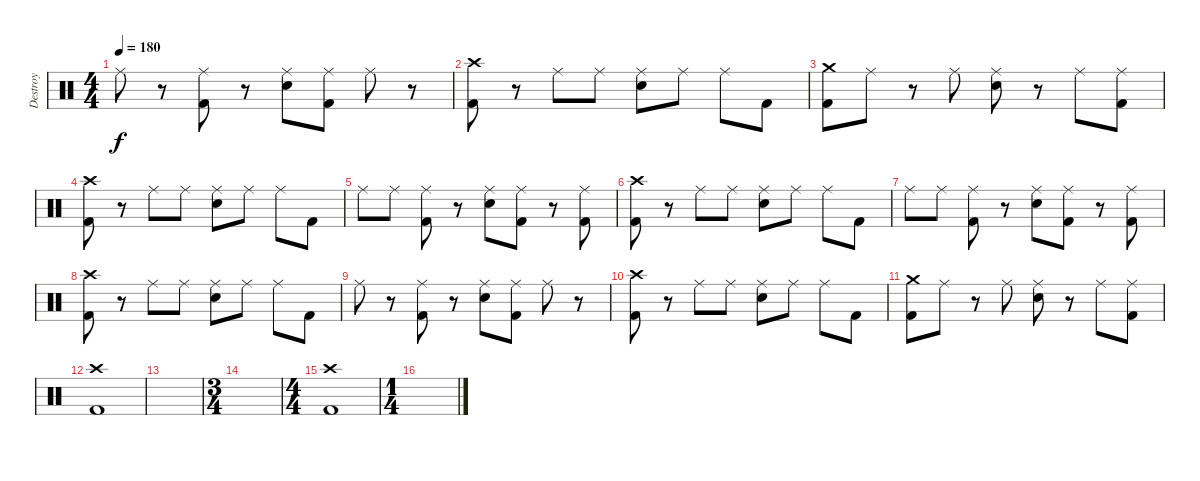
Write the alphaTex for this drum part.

\track ("Destroy" "Destroy") {instrument percussion}
\staff {score}
\articulation defaults
\ts (4 4)
\tempo 180
\clef neutral
\ks c "Ride (middle)".8{dy f}
r.8 ("Ride (middle)" "Kick (hit) 2").8 r.8 ("Ride (middle)" "Electric Snare (hit)").8 ("Ride (middle)" "Kick (hit) 2").8 "Ride (middle)".8 r.8 |
("Crash high (hit)" "Kick (hit) 2").8 r.8 "Ride (middle)".8 "Ride (middle)".8 ("Ride (middle)" "Electric Snare (hit)").8 "Ride (middle)".8 "Ride (middle)".8 "Kick (hit) 2".8 |
("Crash medium (hit)" "Kick (hit) 2").8 "Ride (middle)".8 r.8 "Ride (middle)".8 ("Ride (middle)" "Electric Snare (hit)").8 r.8 "Ride (middle)".8 ("Ride (middle)" "Kick (hit) 2").8 |
("Crash high (hit)" "Kick (hit) 2").8 r.8 "Ride (middle)".8 "Ride (middle)".8 ("Ride (middle)" "Electric Snare (hit)").8 "Ride (middle)".8 "Ride (middle)".8 "Kick (hit) 2".8 |
"Ride (middle)".8 "Ride (middle)".8 ("Ride (middle)" "Kick (hit) 2").8 r.8 ("Ride (middle)" "Electric Snare (hit)").8 ("Ride (middle)" "Kick (hit) 2").8 r.8 ("Ride (middle)" "Kick (hit) 2").8 |
("Crash high (hit)" "Kick (hit) 2").8 r.8 "Ride (middle)".8 "Ride (middle)".8 ("Ride (middle)" "Electric Snare (hit)").8 "Ride (middle)".8 "Ride (middle)".8 "Kick (hit) 2".8 |
"Ride (middle)".8 "Ride (middle)".8 ("Ride (middle)" "Kick (hit) 2").8 r.8 ("Ride (middle)" "Electric Snare (hit)").8 ("Ride (middle)" "Kick (hit) 2").8 r.8 ("Ride (middle)" "Kick (hit) 2").8 |
("Crash high (hit)" "Kick (hit) 2").8 r.8 "Ride (middle)".8 "Ride (middle)".8 ("Ride (middle)" "Electric Snare (hit)").8 "Ride (middle)".8 "Ride (middle)".8 "Kick (hit) 2".8 |
"Ride (middle)".8 r.8 ("Ride (middle)" "Kick (hit) 2").8 r.8 ("Ride (middle)" "Electric Snare (hit)").8 ("Ride (middle)" "Kick (hit) 2").8 "Ride (middle)".8 r.8 |
("Crash high (hit)" "Kick (hit) 2").8 r.8 "Ride (middle)".8 "Ride (middle)".8 ("Ride (middle)" "Electric Snare (hit)").8 "Ride (middle)".8 "Ride (middle)".8 "Kick (hit) 2".8 |
("Crash medium (hit)" "Kick (hit) 2").8 "Ride (middle)".8 r.8 "Ride (middle)".8 ("Ride (middle)" "Electric Snare (hit)").8 r.8 "Ride (middle)".8 ("Ride (middle)" "Kick (hit) 2").8 |
("Crash high (hit)" "Kick (hit) 2").1 |
|
\ts (3 4)
|
\ts (4 4)
("Crash high (hit)" "Kick (hit) 2").1 |
\ts (1 4)
